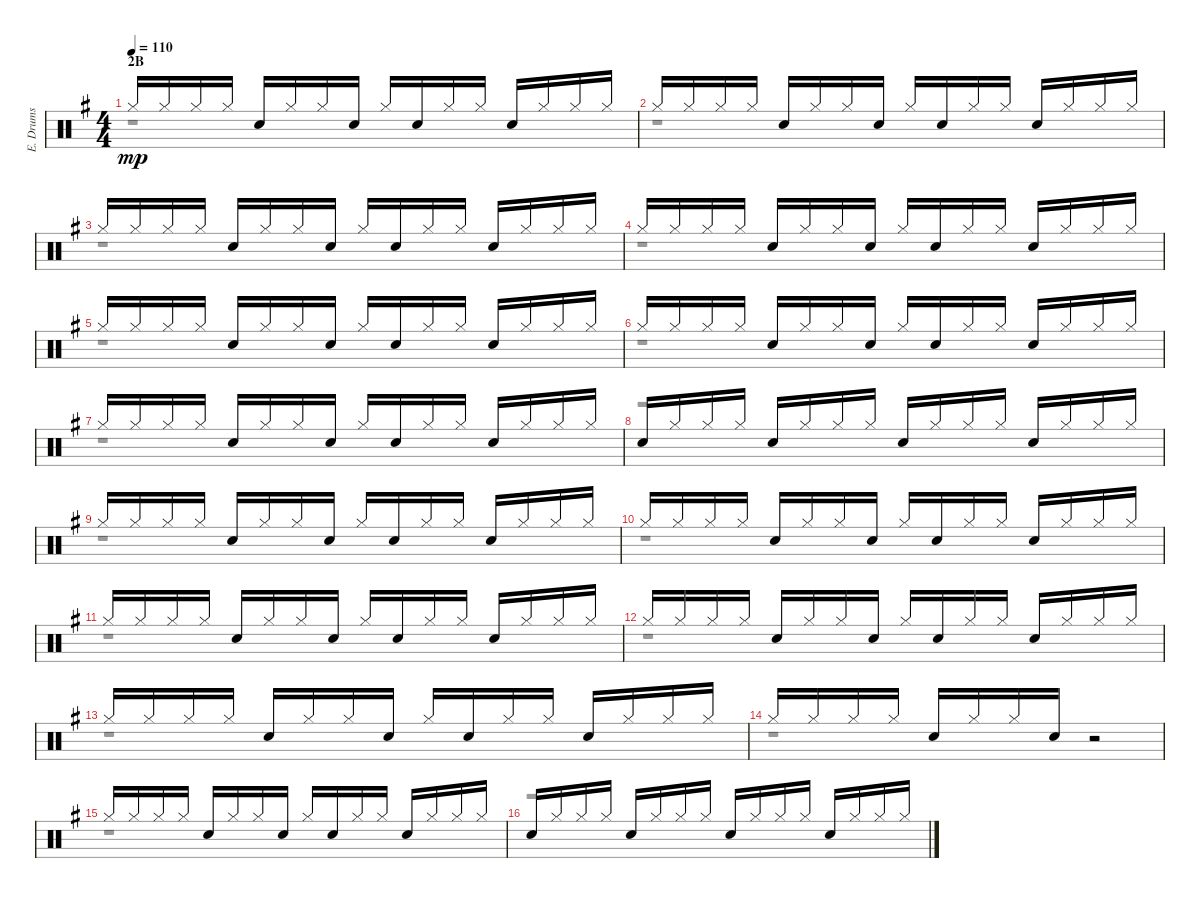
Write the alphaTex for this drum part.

\track ("E. Drums" "E. Drums") {instrument percussion}
\staff {score}
\articulation defaults
\voice
\ts (4 4)
\section ("" "2B")
\tempo 110
\clef neutral
\ks g "Hi-Hat (closed)".16{dy mp} "Hi-Hat (closed)".16 "Hi-Hat (closed)".16 "Hi-Hat (closed)".16 "Electric Snare (hit)".16 "Hi-Hat (closed)".16 "Hi-Hat (closed)".16 "Electric Snare (hit)".16 "Hi-Hat (closed)".16 "Electric Snare (hit)".16 "Hi-Hat (closed)".16 "Hi-Hat (closed)".16 "Electric Snare (hit)".16 "Hi-Hat (closed)".16 "Hi-Hat (closed)".16 "Hi-Hat (closed)".16
|
"Hi-Hat (closed)".16 "Hi-Hat (closed)".16 "Hi-Hat (closed)".16 "Hi-Hat (closed)".16 "Electric Snare (hit)".16 "Hi-Hat (closed)".16 "Hi-Hat (closed)".16 "Electric Snare (hit)".16 "Hi-Hat (closed)".16 "Electric Snare (hit)".16 "Hi-Hat (closed)".16 "Hi-Hat (closed)".16 "Electric Snare (hit)".16 "Hi-Hat (closed)".16 "Hi-Hat (closed)".16 "Hi-Hat (closed)".16 |
"Hi-Hat (closed)".16 "Hi-Hat (closed)".16 "Hi-Hat (closed)".16 "Hi-Hat (closed)".16 "Electric Snare (hit)".16 "Hi-Hat (closed)".16 "Hi-Hat (closed)".16 "Electric Snare (hit)".16 "Hi-Hat (closed)".16 "Electric Snare (hit)".16 "Hi-Hat (closed)".16 "Hi-Hat (closed)".16 "Electric Snare (hit)".16 "Hi-Hat (closed)".16 "Hi-Hat (closed)".16 "Hi-Hat (closed)".16 |
"Hi-Hat (closed)".16 "Hi-Hat (closed)".16 "Hi-Hat (closed)".16 "Hi-Hat (closed)".16 "Electric Snare (hit)".16 "Hi-Hat (closed)".16 "Hi-Hat (closed)".16 "Electric Snare (hit)".16 "Hi-Hat (closed)".16 "Electric Snare (hit)".16 "Hi-Hat (closed)".16 "Hi-Hat (closed)".16 "Electric Snare (hit)".16 "Hi-Hat (closed)".16 "Hi-Hat (closed)".16 "Hi-Hat (closed)".16 |
"Hi-Hat (closed)".16 "Hi-Hat (closed)".16 "Hi-Hat (closed)".16 "Hi-Hat (closed)".16 "Electric Snare (hit)".16 "Hi-Hat (closed)".16 "Hi-Hat (closed)".16 "Electric Snare (hit)".16 "Hi-Hat (closed)".16 "Electric Snare (hit)".16 "Hi-Hat (closed)".16 "Hi-Hat (closed)".16 "Electric Snare (hit)".16 "Hi-Hat (closed)".16 "Hi-Hat (closed)".16 "Hi-Hat (closed)".16 |
"Hi-Hat (closed)".16 "Hi-Hat (closed)".16 "Hi-Hat (closed)".16 "Hi-Hat (closed)".16 "Electric Snare (hit)".16 "Hi-Hat (closed)".16 "Hi-Hat (closed)".16 "Electric Snare (hit)".16 "Hi-Hat (closed)".16 "Electric Snare (hit)".16 "Hi-Hat (closed)".16 "Hi-Hat (closed)".16 "Electric Snare (hit)".16 "Hi-Hat (closed)".16 "Hi-Hat (closed)".16 "Hi-Hat (closed)".16 |
"Hi-Hat (closed)".16 "Hi-Hat (closed)".16 "Hi-Hat (closed)".16 "Hi-Hat (closed)".16 "Electric Snare (hit)".16 "Hi-Hat (closed)".16 "Hi-Hat (closed)".16 "Electric Snare (hit)".16 "Hi-Hat (closed)".16 "Electric Snare (hit)".16 "Hi-Hat (closed)".16 "Hi-Hat (closed)".16 "Electric Snare (hit)".16 "Hi-Hat (closed)".16 "Hi-Hat (closed)".16 "Hi-Hat (closed)".16 |
"Electric Snare (hit)".16 "Hi-Hat (closed)".16 "Hi-Hat (closed)".16 "Hi-Hat (closed)".16 "Electric Snare (hit)".16 "Hi-Hat (closed)".16 "Hi-Hat (closed)".16 "Hi-Hat (closed)".16 "Electric Snare (hit)".16 "Hi-Hat (closed)".16 "Hi-Hat (closed)".16 "Hi-Hat (closed)".16 "Electric Snare (hit)".16 "Hi-Hat (closed)".16 "Hi-Hat (closed)".16 "Hi-Hat (closed)".16 |
"Hi-Hat (closed)".16 "Hi-Hat (closed)".16 "Hi-Hat (closed)".16 "Hi-Hat (closed)".16 "Electric Snare (hit)".16 "Hi-Hat (closed)".16 "Hi-Hat (closed)".16 "Electric Snare (hit)".16 "Hi-Hat (closed)".16 "Electric Snare (hit)".16 "Hi-Hat (closed)".16 "Hi-Hat (closed)".16 "Electric Snare (hit)".16 "Hi-Hat (closed)".16 "Hi-Hat (closed)".16 "Hi-Hat (closed)".16 |
"Hi-Hat (closed)".16 "Hi-Hat (closed)".16 "Hi-Hat (closed)".16 "Hi-Hat (closed)".16 "Electric Snare (hit)".16 "Hi-Hat (closed)".16 "Hi-Hat (closed)".16 "Electric Snare (hit)".16 "Hi-Hat (closed)".16 "Electric Snare (hit)".16 "Hi-Hat (closed)".16 "Hi-Hat (closed)".16 "Electric Snare (hit)".16 "Hi-Hat (closed)".16 "Hi-Hat (closed)".16 "Hi-Hat (closed)".16 |
"Hi-Hat (closed)".16 "Hi-Hat (closed)".16 "Hi-Hat (closed)".16 "Hi-Hat (closed)".16 "Electric Snare (hit)".16 "Hi-Hat (closed)".16 "Hi-Hat (closed)".16 "Electric Snare (hit)".16 "Hi-Hat (closed)".16 "Electric Snare (hit)".16 "Hi-Hat (closed)".16 "Hi-Hat (closed)".16 "Electric Snare (hit)".16 "Hi-Hat (closed)".16 "Hi-Hat (closed)".16 "Hi-Hat (closed)".16 |
"Hi-Hat (closed)".16 "Hi-Hat (closed)".16 "Hi-Hat (closed)".16 "Hi-Hat (closed)".16 "Electric Snare (hit)".16 "Hi-Hat (closed)".16 "Hi-Hat (closed)".16 "Electric Snare (hit)".16 "Hi-Hat (closed)".16 "Electric Snare (hit)".16 "Hi-Hat (closed)".16 "Hi-Hat (closed)".16 "Electric Snare (hit)".16 "Hi-Hat (closed)".16 "Hi-Hat (closed)".16 "Hi-Hat (closed)".16 |
"Hi-Hat (closed)".16 "Hi-Hat (closed)".16 "Hi-Hat (closed)".16 "Hi-Hat (closed)".16 "Electric Snare (hit)".16 "Hi-Hat (closed)".16 "Hi-Hat (closed)".16 "Electric Snare (hit)".16 "Hi-Hat (closed)".16 "Electric Snare (hit)".16 "Hi-Hat (closed)".16 "Hi-Hat (closed)".16 "Electric Snare (hit)".16 "Hi-Hat (closed)".16 "Hi-Hat (closed)".16 "Hi-Hat (closed)".16 |
"Hi-Hat (closed)".16 "Hi-Hat (closed)".16 "Hi-Hat (closed)".16 "Hi-Hat (closed)".16 "Electric Snare (hit)".16 "Hi-Hat (closed)".16 "Hi-Hat (closed)".16 "Electric Snare (hit)".16 r.2 |
"Hi-Hat (closed)".16 "Hi-Hat (closed)".16 "Hi-Hat (closed)".16 "Hi-Hat (closed)".16 "Electric Snare (hit)".16 "Hi-Hat (closed)".16 "Hi-Hat (closed)".16 "Electric Snare (hit)".16 "Hi-Hat (closed)".16 "Electric Snare (hit)".16 "Hi-Hat (closed)".16 "Hi-Hat (closed)".16 "Electric Snare (hit)".16 "Hi-Hat (closed)".16 "Hi-Hat (closed)".16 "Hi-Hat (closed)".16 |
"Electric Snare (hit)".16 "Hi-Hat (closed)".16 "Hi-Hat (closed)".16 "Hi-Hat (closed)".16 "Electric Snare (hit)".16 "Hi-Hat (closed)".16 "Hi-Hat (closed)".16 "Hi-Hat (closed)".16 "Electric Snare (hit)".16 "Hi-Hat (closed)".16 "Hi-Hat (closed)".16 "Hi-Hat (closed)".16 "Electric Snare (hit)".16 "Hi-Hat (closed)".16 "Hi-Hat (closed)".16 "Hi-Hat (closed)".16
\voice
\clef neutral
\ottava regular
\simile none
\ks g
r.1{dy mp} |
r.1 |
r.1 |
r.1 |
r.1 |
r.1 |
r.1 |
r.1 |
r.1 |
r.1 |
r.1 |
r.1 |
r.1 |
r.1 |
r.1 |
r.1
